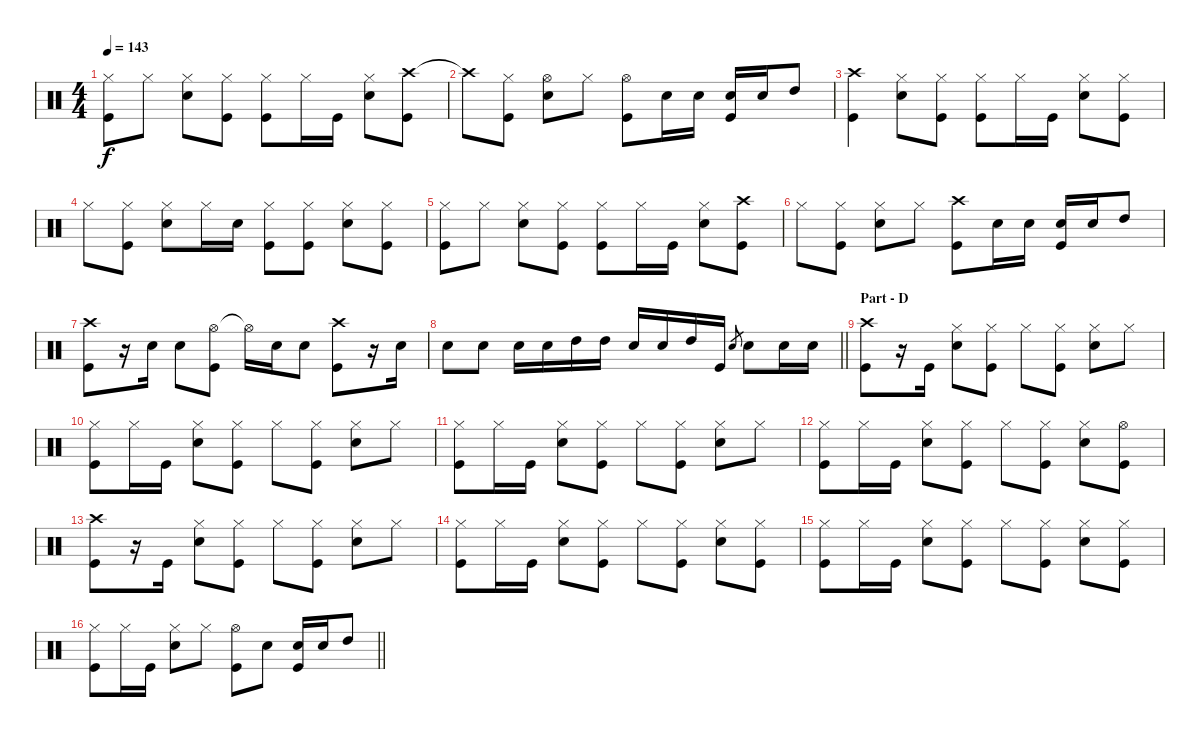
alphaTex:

\track "" {instrument percussion}
\staff {score}
\articulation defaults
\ts (4 4)
\tempo 143
\clef neutral
\ks c
("Hi-Hat (closed)" "Kick (hit)").8{dy f} "Hi-Hat (closed)".8 ("Hi-Hat (closed)" "Snare (hit) 2").8 ("Hi-Hat (closed)" "Kick (hit)").8 ("Hi-Hat (closed)" "Kick (hit)").8 "Hi-Hat (closed)".16 "Kick (hit)".16 ("Hi-Hat (closed)" "Snare (hit) 2").8 ("Crash high (hit)" "Kick (hit)").8 |
"Crash high (hit)"{t}.8 ("Hi-Hat (closed)" "Kick (hit)").8 ("Hi-Hat (open)" "Snare (hit) 2").8 "Hi-Hat (closed)".8 ("Hi-Hat (open)" "Kick (hit)").8 "Snare (hit) 2".16 "Snare (hit) 2".16 ("Snare (hit) 2" "Kick (hit)").16 "Snare (hit) 2".16 "High Tom (hit)".8 |
("Crash high (hit)" "Kick (hit)").4 ("Hi-Hat (closed)" "Snare (hit) 2").8 ("Hi-Hat (closed)" "Kick (hit)").8 ("Hi-Hat (closed)" "Kick (hit)").8 "Hi-Hat (closed)".16 "Kick (hit)".16 ("Hi-Hat (closed)" "Snare (hit) 2").8 ("Hi-Hat (closed)" "Kick (hit)").8 |
"Hi-Hat (closed)".8 ("Hi-Hat (closed)" "Kick (hit)").8 ("Hi-Hat (closed)" "Snare (hit) 2").8 "Hi-Hat (closed)".16 "Snare (hit) 2".16 ("Hi-Hat (closed)" "Kick (hit)").8 ("Hi-Hat (closed)" "Kick (hit)").8 ("Hi-Hat (closed)" "Snare (hit) 2").8 ("Hi-Hat (closed)" "Kick (hit)").8 |
("Hi-Hat (closed)" "Kick (hit)").8 "Hi-Hat (closed)".8 ("Hi-Hat (closed)" "Snare (hit) 2").8 ("Hi-Hat (closed)" "Kick (hit)").8 ("Hi-Hat (closed)" "Kick (hit)").8 "Hi-Hat (closed)".16 "Kick (hit)".16 ("Hi-Hat (closed)" "Snare (hit) 2").8 ("Crash high (hit)" "Kick (hit)").8 |
"Hi-Hat (closed)".8 ("Hi-Hat (closed)" "Kick (hit)").8 ("Hi-Hat (closed)" "Snare (hit) 2").8 "Hi-Hat (closed)".8 ("Crash high (hit)" "Kick (hit)").8 "Snare (hit) 2".16 "Snare (hit) 2".16 ("Snare (hit) 2" "Kick (hit)").16 "Snare (hit) 2".16 "High Tom (hit)".8 |
("Crash high (hit)" "Kick (hit)").8 r.16 "Snare (hit) 2".16 "Snare (hit) 2".8 ("Hi-Hat (open)" "Kick (hit)").8 "Hi-Hat (open)"{t}.16 "Snare (hit) 2".16 "Snare (hit) 2".8 ("Crash high (hit)" "Kick (hit)").8 r.16 "Snare (hit) 2".16 |
\barLineRight lightlight "Snare (hit) 2".8 "Snare (hit) 2".8 "Snare (hit) 2".16 "Snare (hit) 2".16 "High Tom (hit)".16 "High Tom (hit)".16 "Snare (hit) 2".16 "Snare (hit) 2".16 "High Tom (hit)".16 "Kick (hit)".16 "Snare (hit) 2".8{gr} "Snare (hit) 2".8 "Snare (hit) 2".16 "Snare (hit) 2".16
|
\section ("" "Part - D")
("Crash high (hit)" "Kick (hit)").8 r.16 "Kick (hit)".16 ("Hi-Hat (closed)" "Snare (hit) 2").8 ("Hi-Hat (closed)" "Kick (hit)").8 "Hi-Hat (closed)".8 ("Hi-Hat (closed)" "Kick (hit)").8 ("Hi-Hat (closed)" "Snare (hit) 2").8 "Hi-Hat (closed)".8 |
("Hi-Hat (closed)" "Kick (hit)").8 "Hi-Hat (closed)".16 "Kick (hit)".16 ("Hi-Hat (closed)" "Snare (hit) 2").8 ("Hi-Hat (closed)" "Kick (hit)").8 "Hi-Hat (closed)".8 ("Hi-Hat (closed)" "Kick (hit)").8 ("Hi-Hat (closed)" "Snare (hit) 2").8 "Hi-Hat (closed)".8 |
("Hi-Hat (closed)" "Kick (hit)").8 "Hi-Hat (closed)".16 "Kick (hit)".16 ("Hi-Hat (closed)" "Snare (hit) 2").8 ("Hi-Hat (closed)" "Kick (hit)").8 "Hi-Hat (closed)".8 ("Hi-Hat (closed)" "Kick (hit)").8 ("Hi-Hat (closed)" "Snare (hit) 2").8 "Hi-Hat (closed)".8 |
("Hi-Hat (closed)" "Kick (hit)").8 "Hi-Hat (closed)".16 "Kick (hit)".16 ("Hi-Hat (closed)" "Snare (hit) 2").8 ("Hi-Hat (closed)" "Kick (hit)").8 "Hi-Hat (closed)".8 ("Hi-Hat (closed)" "Kick (hit)").8 ("Hi-Hat (closed)" "Snare (hit) 2").8 ("Hi-Hat (open)" "Kick (hit)").8 |
("Crash high (hit)" "Kick (hit)").8 r.16 "Kick (hit)".16 ("Hi-Hat (closed)" "Snare (hit) 2").8 ("Hi-Hat (closed)" "Kick (hit)").8 "Hi-Hat (closed)".8 ("Hi-Hat (closed)" "Kick (hit)").8 ("Hi-Hat (closed)" "Snare (hit) 2").8 "Hi-Hat (closed)".8 |
("Hi-Hat (closed)" "Kick (hit)").8 "Hi-Hat (closed)".16 "Kick (hit)".16 ("Hi-Hat (closed)" "Snare (hit) 2").8 ("Hi-Hat (closed)" "Kick (hit)").8 "Hi-Hat (closed)".8 ("Hi-Hat (closed)" "Kick (hit)").8 ("Hi-Hat (closed)" "Snare (hit) 2").8 ("Hi-Hat (closed)" "Kick (hit)").8 |
("Hi-Hat (closed)" "Kick (hit)").8 "Hi-Hat (closed)".16 "Kick (hit)".16 ("Hi-Hat (closed)" "Snare (hit) 2").8 ("Hi-Hat (closed)" "Kick (hit)").8 "Hi-Hat (closed)".8 ("Hi-Hat (closed)" "Kick (hit)").8 ("Hi-Hat (closed)" "Snare (hit) 2").8 ("Hi-Hat (closed)" "Kick (hit)").8 |
\barLineRight lightlight
("Hi-Hat (closed)" "Kick (hit)").8 "Hi-Hat (closed)".16 "Kick (hit)".16 ("Hi-Hat (closed)" "Snare (hit) 2").8 "Hi-Hat (closed)".8 ("Hi-Hat (open)" "Kick (hit)").8 "Snare (hit) 2".8 ("Snare (hit) 2" "Kick (hit)").16 "Snare (hit) 2".16 "High Tom (hit)".8
